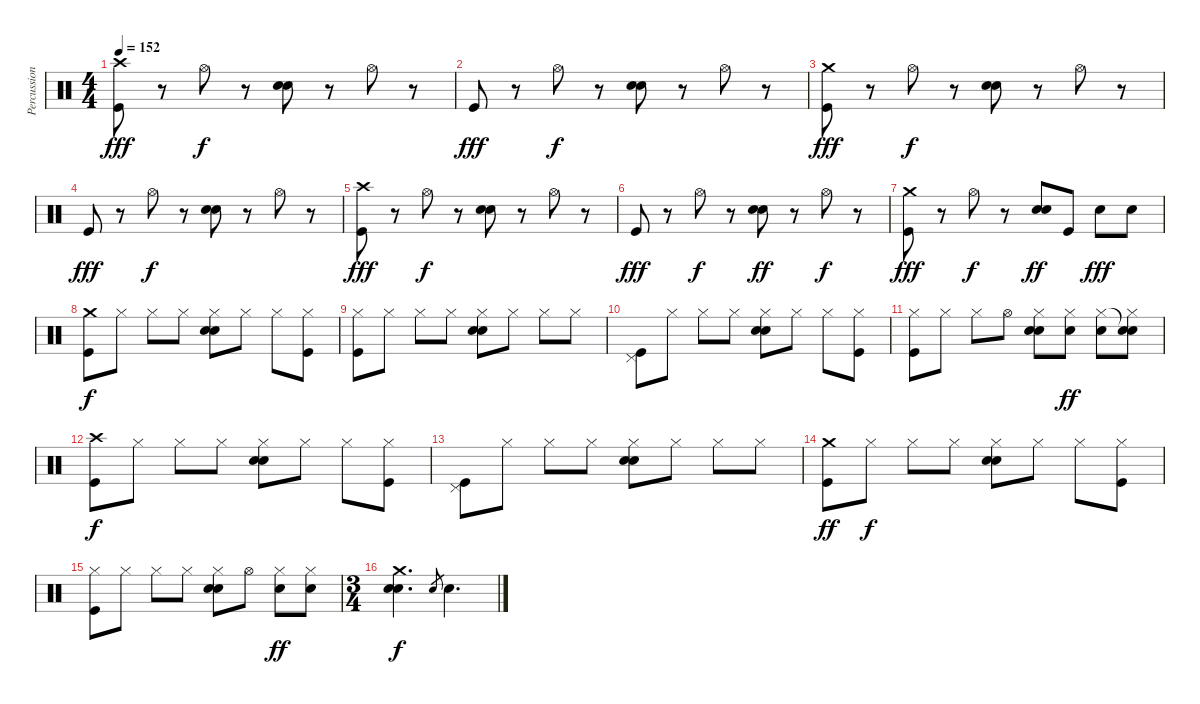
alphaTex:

\track ("Percussion" "Percussion") {instrument percussion}
\staff {score}
\articulation defaults
\ts (4 4)
\tempo 152
\clef neutral
\ks c
("Crash high (hit)" "Kick (hit)").8{dy fff} r.8 "Hi-Hat (open)".8{dy f} r.8 ("Snare (hit) 2" "Electric Snare (hit)").8 r.8 "Hi-Hat (open)".8 r.8 |
"Kick (hit)".8{dy fff} r.8 "Hi-Hat (open)".8{dy f} r.8 ("Snare (hit) 2" "Electric Snare (hit)").8 r.8 "Hi-Hat (open)".8 r.8 |
("Crash medium (hit)" "Kick (hit)").8{dy fff} r.8 "Hi-Hat (open)".8{dy f} r.8 ("Snare (hit) 2" "Electric Snare (hit)").8 r.8 "Hi-Hat (open)".8 r.8 |
"Kick (hit)".8{dy fff} r.8 "Hi-Hat (open)".8{dy f} r.8 ("Snare (hit) 2" "Electric Snare (hit)").8 r.8 "Hi-Hat (open)".8 r.8 |
("Crash high (hit)" "Kick (hit)").8{dy fff} r.8 "Hi-Hat (open)".8{dy f} r.8 ("Snare (hit) 2" "Electric Snare (hit)").8 r.8 "Hi-Hat (open)".8 r.8 |
"Kick (hit)".8{dy fff} r.8 "Hi-Hat (open)".8{dy f} r.8 ("Snare (hit) 2" "Electric Snare (hit)").8{dy ff} r.8 "Hi-Hat (open)".8{dy f} r.8 |
("Crash medium (hit)" "Kick (hit)").8{dy fff} r.8 "Hi-Hat (open)".8{dy f} r.8 ("Snare (hit) 2" "Electric Snare (hit)").8{dy ff} "Kick (hit)".8 "Snare (hit) 2".8{dy fff} "Snare (hit) 2".8 |
("Crash medium (hit)" "Kick (hit)").8{dy f} "Hi-Hat (closed)".8 "Hi-Hat (closed)".8 "Hi-Hat (closed)".8 ("Hi-Hat (closed)" "Snare (hit) 2" "Electric Snare (hit)").8 "Hi-Hat (closed)".8 "Hi-Hat (closed)".8 ("Hi-Hat (closed)" "Kick (hit)").8 |
("Hi-Hat (closed)" "Kick (hit)").8 "Hi-Hat (closed)".8 "Hi-Hat (closed)".8 "Hi-Hat (closed)".8 ("Hi-Hat (closed)" "Snare (hit) 2" "Electric Snare (hit)").8 "Hi-Hat (closed)".8 "Hi-Hat (closed)".8 "Hi-Hat (closed)".8 |
("Pedal Hi-Hat (hit)" "Kick (hit)").8 "Hi-Hat (closed)".8 "Hi-Hat (closed)".8 "Hi-Hat (closed)".8 ("Hi-Hat (closed)" "Snare (hit) 2" "Electric Snare (hit)").8 "Hi-Hat (closed)".8 "Hi-Hat (closed)".8 ("Hi-Hat (closed)" "Kick (hit)").8 |
("Hi-Hat (closed)" "Kick (hit)").8 "Hi-Hat (closed)".8 "Hi-Hat (closed)".8 "Hi-Hat (open)".8 ("Hi-Hat (closed)" "Snare (hit) 2" "Electric Snare (hit)").8 ("Hi-Hat (closed)" "Snare (hit) 2").8{dy ff} ("Hi-Hat (closed)" "Snare (hit) 2").8 ("Snare (hit)"{t} "Hi-Hat (closed)" "Snare (hit) 2").8 |
("Crash high (hit)" "Kick (hit)").8{dy f} "Hi-Hat (closed)".8 "Hi-Hat (closed)".8 "Hi-Hat (closed)".8 ("Hi-Hat (closed)" "Snare (hit) 2" "Electric Snare (hit)").8 "Hi-Hat (closed)".8 "Hi-Hat (closed)".8 ("Hi-Hat (closed)" "Kick (hit)").8 |
("Pedal Hi-Hat (hit)" "Kick (hit)").8 "Hi-Hat (closed)".8 "Hi-Hat (closed)".8 "Hi-Hat (closed)".8 ("Hi-Hat (closed)" "Snare (hit) 2" "Electric Snare (hit)").8 "Hi-Hat (closed)".8 "Hi-Hat (closed)".8 "Hi-Hat (closed)".8 |
("Crash medium (hit)" "Kick (hit)").8{dy ff} "Hi-Hat (closed)".8{dy f} "Hi-Hat (closed)".8 "Hi-Hat (closed)".8 ("Hi-Hat (closed)" "Snare (hit) 2" "Electric Snare (hit)").8 "Hi-Hat (closed)".8 "Hi-Hat (closed)".8 ("Hi-Hat (closed)" "Kick (hit)").8 |
("Hi-Hat (closed)" "Kick (hit)").8 "Hi-Hat (closed)".8 "Hi-Hat (closed)".8 "Hi-Hat (closed)".8 ("Hi-Hat (closed)" "Snare (hit) 2" "Electric Snare (hit)").8 "Hi-Hat (open)".8 ("Hi-Hat (closed)" "Snare (hit) 2").8{dy ff} ("Hi-Hat (closed)" "Snare (hit) 2").8 |
\ts (3 4)
("Crash medium (hit)" "Snare (hit) 2" "Electric Snare (hit)").4{d dy f} "Snare (hit) 2".8{gr} "Snare (hit) 2".4{d}
